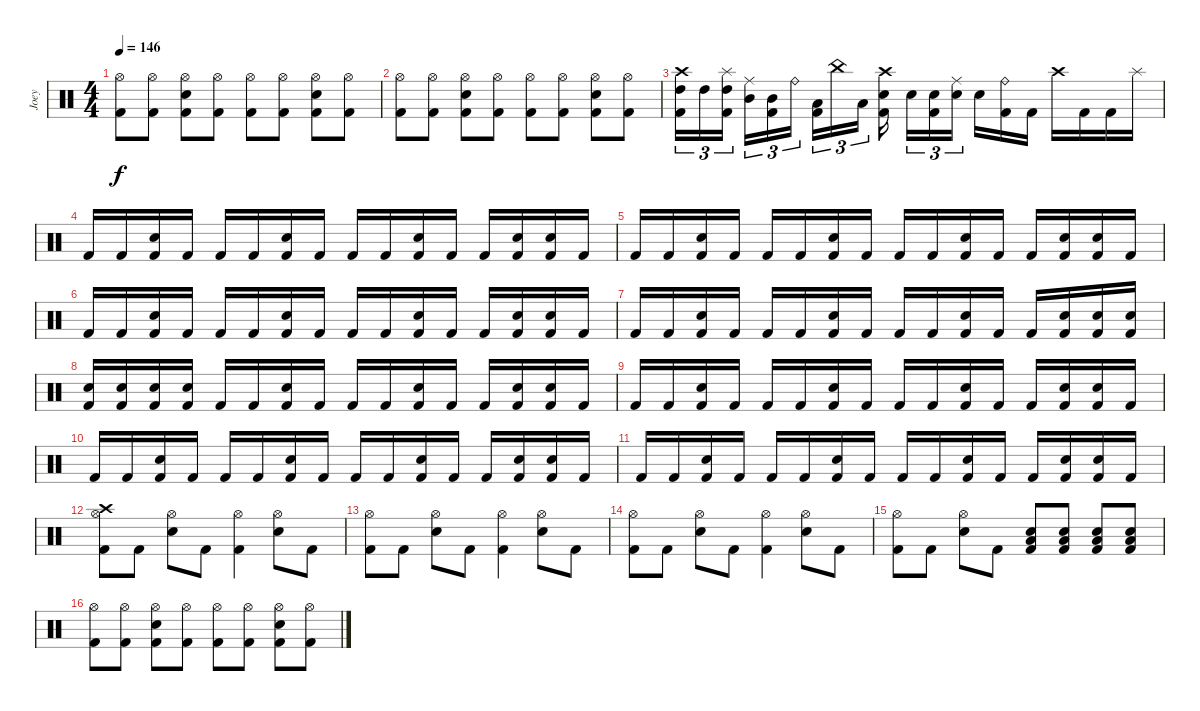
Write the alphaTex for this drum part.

\track ("Joey" "Joey") {instrument percussion}
\staff {score}
\articulation defaults
\ts (4 4)
\tempo 146
\clef neutral
\ks c
("Hi-Hat (open)" "Kick (hit) 2").8{dy f} ("Hi-Hat (open)" "Kick (hit) 2").8 ("Hi-Hat (open)" "Electric Snare (hit)" "Kick (hit) 2").8 ("Hi-Hat (open)" "Kick (hit) 2").8 ("Hi-Hat (open)" "Kick (hit) 2").8 ("Hi-Hat (open)" "Kick (hit) 2").8 ("Hi-Hat (open)" "Electric Snare (hit)" "Kick (hit) 2").8 ("Hi-Hat (open)" "Kick (hit) 2").8 |
("Hi-Hat (open)" "Kick (hit) 2").8 ("Hi-Hat (open)" "Kick (hit) 2").8 ("Hi-Hat (open)" "Electric Snare (hit)" "Kick (hit) 2").8 ("Hi-Hat (open)" "Kick (hit) 2").8 ("Hi-Hat (open)" "Kick (hit) 2").8 ("Hi-Hat (open)" "Kick (hit) 2").8 ("Hi-Hat (open)" "Electric Snare (hit)" "Kick (hit) 2").8 ("Hi-Hat (open)" "Kick (hit) 2").8 |
("Crash high (hit)" "High Tom (hit)" "Kick (hit) 2").16{tu (3 2)} "High Tom (hit)".16{tu (3 2)} ("Splash (hit)" "High Tom (hit)" "Kick (hit) 2").16{tu (3 2) beam splitsecondary} ("Ride (middle)" "Mid Tom (hit)").16{tu (3 2)} ("Mid Tom (hit)" "Kick (hit) 2").16{tu (3 2)} "Ride (bell)".16{tu (3 2)} ("Low Tom (hit)" "Kick (hit) 2").16{tu (3 2)} "China (hit)".16{tu (3 2)} "Low Tom (hit)".16{tu (3 2) beam splitsecondary} ("Crash high (hit)" "Electric Snare (hit)" "Kick (hit) 2").16{beam splitsecondary} "Electric Snare (hit)".16{tu (3 2)} ("Electric Snare (hit)" "Kick (hit) 2").16{tu (3 2)} ("Ride (middle)" "Electric Snare (hit)").16{tu (3 2) beam splitsecondary} "Electric Snare (hit)".16 ("Ride (bell)" "Kick (hit) 2").16 "Kick (hit) 2".16 "Crash high (hit)".16 "Kick (hit) 2".16 "Kick (hit) 2".16 "Splash (hit)".16 |
"Kick (hit) 2".16 "Kick (hit) 2".16 ("Electric Snare (hit)" "Kick (hit) 2").16 "Kick (hit) 2".16 "Kick (hit) 2".16 "Kick (hit) 2".16 ("Electric Snare (hit)" "Kick (hit) 2").16 "Kick (hit) 2".16 "Kick (hit) 2".16 "Kick (hit) 2".16 ("Electric Snare (hit)" "Kick (hit) 2").16 "Kick (hit) 2".16 "Kick (hit) 2".16 ("Snare (hit)" "Kick (hit) 2").16 ("Electric Snare (hit)" "Kick (hit) 2").16 "Kick (hit) 2".16 |
"Kick (hit) 2".16 "Kick (hit) 2".16 ("Electric Snare (hit)" "Kick (hit) 2").16 "Kick (hit) 2".16 "Kick (hit) 2".16 "Kick (hit) 2".16 ("Electric Snare (hit)" "Kick (hit) 2").16 "Kick (hit) 2".16 "Kick (hit) 2".16 "Kick (hit) 2".16 ("Electric Snare (hit)" "Kick (hit) 2").16 "Kick (hit) 2".16 "Kick (hit) 2".16 ("Snare (hit)" "Kick (hit) 2").16 ("Electric Snare (hit)" "Kick (hit) 2").16 "Kick (hit) 2".16 |
"Kick (hit) 2".16 "Kick (hit) 2".16 ("Electric Snare (hit)" "Kick (hit) 2").16 "Kick (hit) 2".16 "Kick (hit) 2".16 "Kick (hit) 2".16 ("Electric Snare (hit)" "Kick (hit) 2").16 "Kick (hit) 2".16 "Kick (hit) 2".16 "Kick (hit) 2".16 ("Electric Snare (hit)" "Kick (hit) 2").16 "Kick (hit) 2".16 "Kick (hit) 2".16 ("Snare (hit)" "Kick (hit) 2").16 ("Electric Snare (hit)" "Kick (hit) 2").16 "Kick (hit) 2".16 |
"Kick (hit) 2".16 "Kick (hit) 2".16 ("Electric Snare (hit)" "Kick (hit) 2").16 "Kick (hit) 2".16 "Kick (hit) 2".16 "Kick (hit) 2".16 ("Electric Snare (hit)" "Kick (hit) 2").16 "Kick (hit) 2".16 "Kick (hit) 2".16 "Kick (hit) 2".16 ("Electric Snare (hit)" "Kick (hit) 2").16 "Kick (hit) 2".16 "Kick (hit) 2".16 ("Snare (hit)" "Kick (hit) 2").16 ("Electric Snare (hit)" "Kick (hit) 2").16 ("Electric Snare (hit)" "Kick (hit) 2").16 |
("Snare (hit)" "Kick (hit) 2").16 ("Snare (hit)" "Kick (hit) 2").16 ("Electric Snare (hit)" "Kick (hit) 2").16 ("Snare (hit)" "Kick (hit) 2").16 "Kick (hit) 2".16 "Kick (hit) 2".16 ("Electric Snare (hit)" "Kick (hit) 2").16 "Kick (hit) 2".16 "Kick (hit) 2".16 "Kick (hit) 2".16 ("Electric Snare (hit)" "Kick (hit) 2").16 "Kick (hit) 2".16 "Kick (hit) 2".16 ("Snare (hit)" "Kick (hit) 2").16 ("Electric Snare (hit)" "Kick (hit) 2").16 "Kick (hit) 2".16 |
"Kick (hit) 2".16 "Kick (hit) 2".16 ("Electric Snare (hit)" "Kick (hit) 2").16 "Kick (hit) 2".16 "Kick (hit) 2".16 "Kick (hit) 2".16 ("Electric Snare (hit)" "Kick (hit) 2").16 "Kick (hit) 2".16 "Kick (hit) 2".16 "Kick (hit) 2".16 ("Electric Snare (hit)" "Kick (hit) 2").16 "Kick (hit) 2".16 "Kick (hit) 2".16 ("Snare (hit)" "Kick (hit) 2").16 ("Electric Snare (hit)" "Kick (hit) 2").16 "Kick (hit) 2".16 |
"Kick (hit) 2".16 "Kick (hit) 2".16 ("Electric Snare (hit)" "Kick (hit) 2").16 "Kick (hit) 2".16 "Kick (hit) 2".16 "Kick (hit) 2".16 ("Electric Snare (hit)" "Kick (hit) 2").16 "Kick (hit) 2".16 "Kick (hit) 2".16 "Kick (hit) 2".16 ("Electric Snare (hit)" "Kick (hit) 2").16 "Kick (hit) 2".16 "Kick (hit) 2".16 ("Snare (hit)" "Kick (hit) 2").16 ("Electric Snare (hit)" "Kick (hit) 2").16 "Kick (hit) 2".16 |
"Kick (hit) 2".16 "Kick (hit) 2".16 ("Electric Snare (hit)" "Kick (hit) 2").16 "Kick (hit) 2".16 "Kick (hit) 2".16 "Kick (hit) 2".16 ("Electric Snare (hit)" "Kick (hit) 2").16 "Kick (hit) 2".16 "Kick (hit) 2".16 "Kick (hit) 2".16 ("Electric Snare (hit)" "Kick (hit) 2").16 "Kick (hit) 2".16 "Kick (hit) 2".16 ("Snare (hit)" "Kick (hit) 2").16 ("Electric Snare (hit)" "Kick (hit) 2").16 "Kick (hit) 2".16 |
("Hi-Hat (open)" "Crash high (hit)" "Kick (hit) 2").8 "Kick (hit) 2".8 ("Hi-Hat (open)" "Electric Snare (hit)").8 "Kick (hit) 2".8 ("Hi-Hat (open)" "Kick (hit) 2").4 ("Hi-Hat (open)" "Electric Snare (hit)").8 "Kick (hit) 2".8 |
("Hi-Hat (open)" "Kick (hit) 2").8 "Kick (hit) 2".8 ("Hi-Hat (open)" "Electric Snare (hit)").8 "Kick (hit) 2".8 ("Hi-Hat (open)" "Kick (hit) 2").4 ("Hi-Hat (open)" "Electric Snare (hit)").8 "Kick (hit) 2".8 |
("Hi-Hat (open)" "Kick (hit) 2").8 "Kick (hit) 2".8 ("Hi-Hat (open)" "Electric Snare (hit)").8 "Kick (hit) 2".8 ("Hi-Hat (open)" "Kick (hit) 2").4 ("Hi-Hat (open)" "Electric Snare (hit)").8 "Kick (hit) 2".8 |
("Hi-Hat (open)" "Kick (hit) 2").8 "Kick (hit) 2".8 ("Hi-Hat (open)" "Electric Snare (hit)").8 "Kick (hit) 2".8 ("Kick (hit) 2" "Electric Snare (hit)" "Low Floor Tom (hit)").8 ("Kick (hit) 2" "Electric Snare (hit)" "Low Floor Tom (hit)").8 ("Kick (hit) 2" "Electric Snare (hit)" "Low Floor Tom (hit)").8 ("Kick (hit) 2" "Electric Snare (hit)" "Low Floor Tom (hit)").8 |
("Hi-Hat (open)" "Kick (hit) 2").8 ("Hi-Hat (open)" "Kick (hit) 2").8 ("Hi-Hat (open)" "Electric Snare (hit)" "Kick (hit) 2").8 ("Hi-Hat (open)" "Kick (hit) 2").8 ("Hi-Hat (open)" "Kick (hit) 2").8 ("Hi-Hat (open)" "Kick (hit) 2").8 ("Hi-Hat (open)" "Electric Snare (hit)" "Kick (hit) 2").8 ("Hi-Hat (open)" "Kick (hit) 2").8
